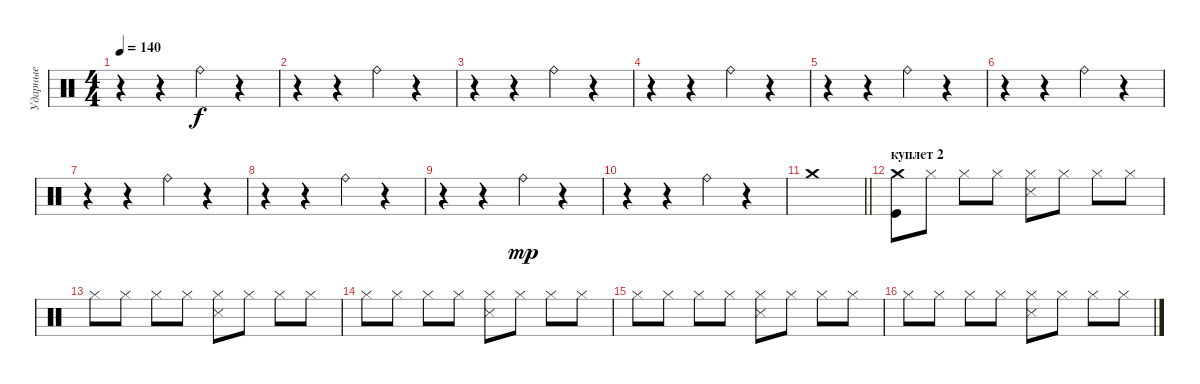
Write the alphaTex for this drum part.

\track ("Ударные" "Ударные") {instrument percussion}
\staff {score}
\articulation defaults
\ts (4 4)
\tempo 140
\clef neutral
\ks c
r.4{dy f} r.4 "Ride (bell)".4 r.4 |
r.4 r.4 "Ride (bell)".4 r.4 |
r.4 r.4 "Ride (bell)".4 r.4 |
r.4 r.4 "Ride (bell)".4 r.4 |
r.4 r.4 "Ride (bell)".4 r.4 |
r.4 r.4 "Ride (bell)".4 r.4 |
r.4 r.4 "Ride (bell)".4 r.4 |
r.4 r.4 "Ride (bell)".4 r.4 |
r.4 r.4 "Ride (bell)".4{dy mp} r.4 |
r.4 r.4 "Ride (bell)".4 r.4 |
\barLineRight lightlight "Crash medium (hit)".1
|
\section ("" "куплет 2")
("Crash medium (hit)" "Kick (hit)").8 "Hi-Hat (closed)".8 "Hi-Hat (closed)".8 "Hi-Hat (closed)".8 ("Snare (side stick) 3" "Hi-Hat (closed)").8 "Hi-Hat (closed)".8 "Hi-Hat (closed)".8 "Hi-Hat (closed)".8 |
"Hi-Hat (closed)".8 "Hi-Hat (closed)".8 "Hi-Hat (closed)".8 "Hi-Hat (closed)".8 ("Snare (side stick) 3" "Hi-Hat (closed)").8 "Hi-Hat (closed)".8 "Hi-Hat (closed)".8 "Hi-Hat (closed)".8 |
"Hi-Hat (closed)".8 "Hi-Hat (closed)".8 "Hi-Hat (closed)".8 "Hi-Hat (closed)".8 ("Snare (side stick) 3" "Hi-Hat (closed)").8 "Hi-Hat (closed)".8 "Hi-Hat (closed)".8 "Hi-Hat (closed)".8 |
"Hi-Hat (closed)".8 "Hi-Hat (closed)".8 "Hi-Hat (closed)".8 "Hi-Hat (closed)".8 ("Snare (side stick) 3" "Hi-Hat (closed)").8 "Hi-Hat (closed)".8 "Hi-Hat (closed)".8 "Hi-Hat (closed)".8 |
"Hi-Hat (closed)".8 "Hi-Hat (closed)".8 "Hi-Hat (closed)".8 "Hi-Hat (closed)".8 ("Snare (side stick) 3" "Hi-Hat (closed)").8 "Hi-Hat (closed)".8 "Hi-Hat (closed)".8 "Hi-Hat (closed)".8
